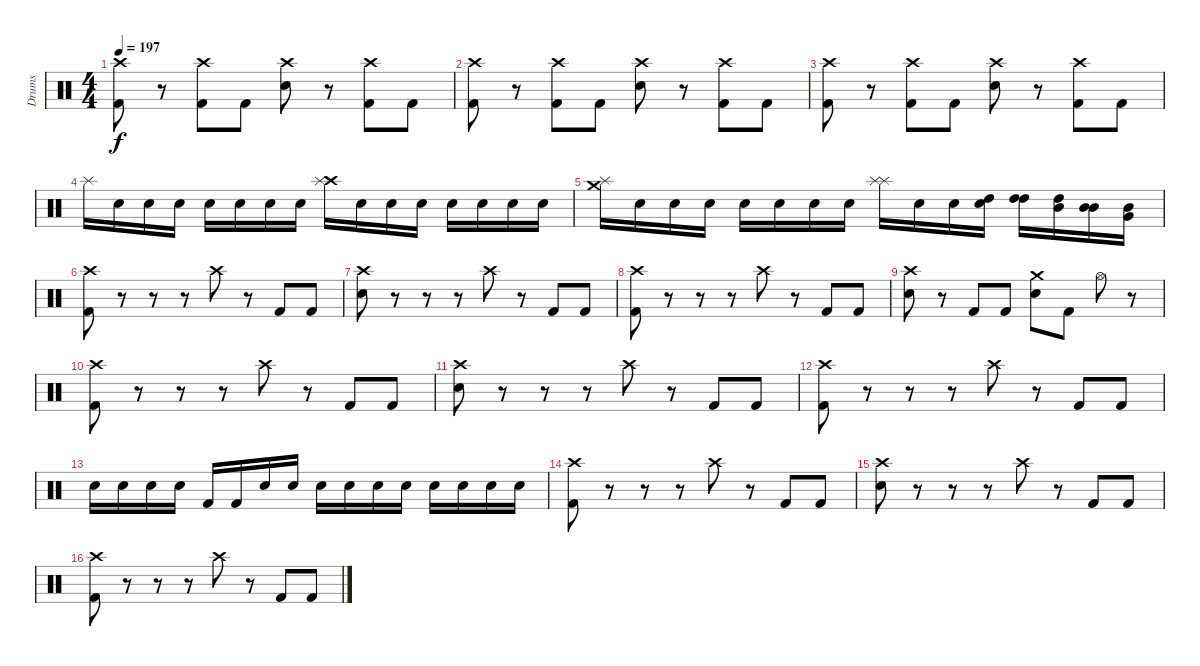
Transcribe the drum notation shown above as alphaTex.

\track ("Drums" "Drums") {instrument percussion}
\staff {score}
\articulation defaults
\ts (4 4)
\tempo 197
\clef neutral
\ks c
("Crash high (hit)" "Kick (hit) 2").8{dy f} r.8 ("Crash high (hit)" "Kick (hit) 2").8 "Kick (hit) 2".8 ("Crash high (hit)" "Electric Snare (hit)").8 r.8 ("Crash high (hit)" "Kick (hit) 2").8 "Kick (hit) 2".8 |
("Crash high (hit)" "Kick (hit) 2").8 r.8 ("Crash high (hit)" "Kick (hit) 2").8 "Kick (hit) 2".8 ("Crash high (hit)" "Electric Snare (hit)").8 r.8 ("Crash high (hit)" "Kick (hit) 2").8 "Kick (hit) 2".8 |
("Crash high (hit)" "Kick (hit) 2").8 r.8 ("Crash high (hit)" "Kick (hit) 2").8 "Kick (hit) 2".8 ("Crash high (hit)" "Electric Snare (hit)").8 r.8 ("Crash high (hit)" "Kick (hit) 2").8 "Kick (hit) 2".8 |
"Splash (hit)".16 "Electric Snare (hit)".16 "Electric Snare (hit)".16 "Electric Snare (hit)".16 "Electric Snare (hit)".16 "Electric Snare (hit)".16 "Electric Snare (hit)".16 "Electric Snare (hit)".16 ("Crash high (hit)" "Splash (hit)").16 "Electric Snare (hit)".16 "Electric Snare (hit)".16 "Electric Snare (hit)".16 "Electric Snare (hit)".16 "Electric Snare (hit)".16 "Electric Snare (hit)".16 "Electric Snare (hit)".16 |
("Crash medium (hit)" "Splash (hit)").16 "Electric Snare (hit)".16 "Electric Snare (hit)".16 "Electric Snare (hit)".16 "Electric Snare (hit)".16 "Electric Snare (hit)".16 "Electric Snare (hit)".16 "Electric Snare (hit)".16 ("Splash (hit)" "Splash (hit)").16 "Electric Snare (hit)".16 "Electric Snare (hit)".16 ("High Tom (hit)" "Electric Snare (hit)").16 ("High Tom (hit)" "High Tom (hit)").16 ("Mid Tom (hit)" "High Tom (hit)").16 ("Mid Tom (hit)" "Mid Tom (hit)").16 ("Very Low Tom (hit)" "Mid Tom (hit)").16 |
("Crash high (hit)" "Kick (hit) 2").8 r.8 r.8 r.8 "Crash high (hit)".8 r.8 "Kick (hit) 2".8 "Kick (hit) 2".8 |
("Crash high (hit)" "Electric Snare (hit)").8 r.8 r.8 r.8 "Crash high (hit)".8 r.8 "Kick (hit) 2".8 "Kick (hit) 2".8 |
("Crash high (hit)" "Kick (hit) 2").8 r.8 r.8 r.8 "Crash high (hit)".8 r.8 "Kick (hit) 2".8 "Kick (hit) 2".8 |
("Crash high (hit)" "Electric Snare (hit)").8 r.8 "Kick (hit) 2".8 "Kick (hit) 2".8 ("Crash medium (hit)" "Electric Snare (hit)").8 "Kick (hit) 2".8 "Hi-Hat (open)".8 r.8 |
("Crash high (hit)" "Kick (hit) 2").8 r.8 r.8 r.8 "Crash high (hit)".8 r.8 "Kick (hit) 2".8 "Kick (hit) 2".8 |
("Crash high (hit)" "Electric Snare (hit)").8 r.8 r.8 r.8 "Crash high (hit)".8 r.8 "Kick (hit) 2".8 "Kick (hit) 2".8 |
("Crash high (hit)" "Kick (hit) 2").8 r.8 r.8 r.8 "Crash high (hit)".8 r.8 "Kick (hit) 2".8 "Kick (hit) 2".8 |
"Electric Snare (hit)".16 "Electric Snare (hit)".16 "Electric Snare (hit)".16 "Electric Snare (hit)".16 "Kick (hit) 2".16 "Kick (hit) 2".16 "Electric Snare (hit)".16 "Electric Snare (hit)".16 "Electric Snare (hit)".16 "Electric Snare (hit)".16 "Electric Snare (hit)".16 "Electric Snare (hit)".16 "Electric Snare (hit)".16 "Electric Snare (hit)".16 "Electric Snare (hit)".16 "Electric Snare (hit)".16 |
("Crash high (hit)" "Kick (hit) 2").8 r.8 r.8 r.8 "Crash high (hit)".8 r.8 "Kick (hit) 2".8 "Kick (hit) 2".8 |
("Crash high (hit)" "Electric Snare (hit)").8 r.8 r.8 r.8 "Crash high (hit)".8 r.8 "Kick (hit) 2".8 "Kick (hit) 2".8 |
("Crash high (hit)" "Kick (hit) 2").8 r.8 r.8 r.8 "Crash high (hit)".8 r.8 "Kick (hit) 2".8 "Kick (hit) 2".8
